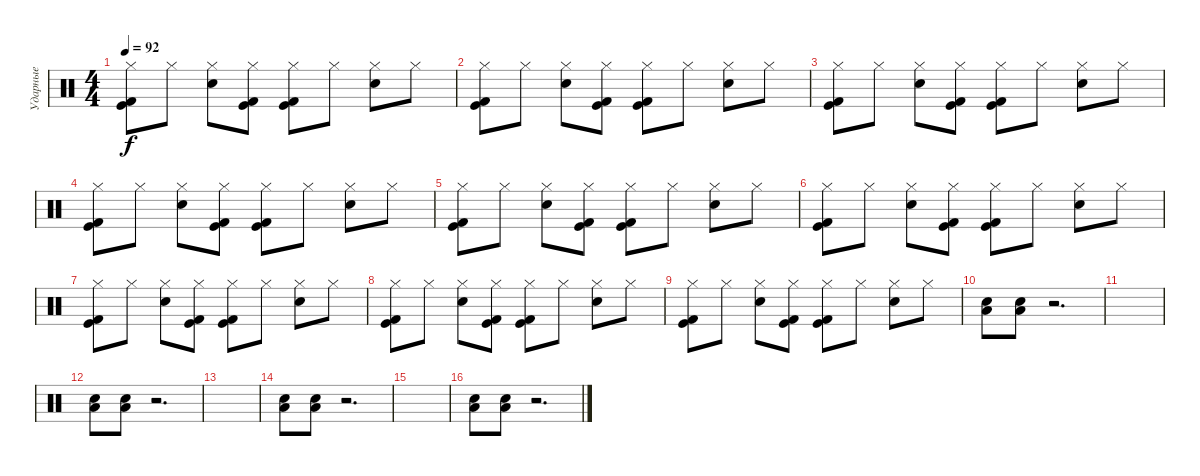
\track ("Ударные" "Ударные") {instrument percussion}
\staff {score}
\articulation defaults
\ts (4 4)
\tempo 92
\clef neutral
\ks c
("Hi-Hat (closed)" "Kick (hit)" "Kick (hit) 2").8{dy f} "Hi-Hat (closed)".8 ("Hi-Hat (closed)" "Electric Snare (hit)").8 ("Hi-Hat (closed)" "Kick (hit)" "Kick (hit) 2").8 ("Hi-Hat (closed)" "Kick (hit)" "Kick (hit) 2").8 "Hi-Hat (closed)".8 ("Hi-Hat (closed)" "Electric Snare (hit)").8 "Hi-Hat (closed)".8 |
("Hi-Hat (closed)" "Kick (hit)" "Kick (hit) 2").8 "Hi-Hat (closed)".8 ("Hi-Hat (closed)" "Electric Snare (hit)").8 ("Hi-Hat (closed)" "Kick (hit)" "Kick (hit) 2").8 ("Hi-Hat (closed)" "Kick (hit)" "Kick (hit) 2").8 "Hi-Hat (closed)".8 ("Hi-Hat (closed)" "Electric Snare (hit)").8 "Hi-Hat (closed)".8 |
("Hi-Hat (closed)" "Kick (hit)" "Kick (hit) 2").8 "Hi-Hat (closed)".8 ("Hi-Hat (closed)" "Electric Snare (hit)").8 ("Hi-Hat (closed)" "Kick (hit)" "Kick (hit) 2").8 ("Hi-Hat (closed)" "Kick (hit)" "Kick (hit) 2").8 "Hi-Hat (closed)".8 ("Hi-Hat (closed)" "Electric Snare (hit)").8 "Hi-Hat (closed)".8 |
("Hi-Hat (closed)" "Kick (hit)" "Kick (hit) 2").8 "Hi-Hat (closed)".8 ("Hi-Hat (closed)" "Electric Snare (hit)").8 ("Hi-Hat (closed)" "Kick (hit)" "Kick (hit) 2").8 ("Hi-Hat (closed)" "Kick (hit)" "Kick (hit) 2").8 "Hi-Hat (closed)".8 ("Hi-Hat (closed)" "Electric Snare (hit)").8 "Hi-Hat (closed)".8 |
("Hi-Hat (closed)" "Kick (hit)" "Kick (hit) 2").8 "Hi-Hat (closed)".8 ("Hi-Hat (closed)" "Electric Snare (hit)").8 ("Hi-Hat (closed)" "Kick (hit)" "Kick (hit) 2").8 ("Hi-Hat (closed)" "Kick (hit)" "Kick (hit) 2").8 "Hi-Hat (closed)".8 ("Hi-Hat (closed)" "Electric Snare (hit)").8 "Hi-Hat (closed)".8 |
("Hi-Hat (closed)" "Kick (hit)" "Kick (hit) 2").8 "Hi-Hat (closed)".8 ("Hi-Hat (closed)" "Electric Snare (hit)").8 ("Hi-Hat (closed)" "Kick (hit)" "Kick (hit) 2").8 ("Hi-Hat (closed)" "Kick (hit)" "Kick (hit) 2").8 "Hi-Hat (closed)".8 ("Hi-Hat (closed)" "Electric Snare (hit)").8 "Hi-Hat (closed)".8 |
("Hi-Hat (closed)" "Kick (hit)" "Kick (hit) 2").8 "Hi-Hat (closed)".8 ("Hi-Hat (closed)" "Electric Snare (hit)").8 ("Hi-Hat (closed)" "Kick (hit)" "Kick (hit) 2").8 ("Hi-Hat (closed)" "Kick (hit)" "Kick (hit) 2").8 "Hi-Hat (closed)".8 ("Hi-Hat (closed)" "Electric Snare (hit)").8 "Hi-Hat (closed)".8 |
("Hi-Hat (closed)" "Kick (hit)" "Kick (hit) 2").8 "Hi-Hat (closed)".8 ("Hi-Hat (closed)" "Electric Snare (hit)").8 ("Hi-Hat (closed)" "Kick (hit)" "Kick (hit) 2").8 ("Hi-Hat (closed)" "Kick (hit)" "Kick (hit) 2").8 "Hi-Hat (closed)".8 ("Hi-Hat (closed)" "Electric Snare (hit)").8 "Hi-Hat (closed)".8 |
("Hi-Hat (closed)" "Kick (hit)" "Kick (hit) 2").8 "Hi-Hat (closed)".8 ("Hi-Hat (closed)" "Electric Snare (hit)").8 ("Hi-Hat (closed)" "Kick (hit)" "Kick (hit) 2").8 ("Hi-Hat (closed)" "Kick (hit)" "Kick (hit) 2").8 "Hi-Hat (closed)".8 ("Hi-Hat (closed)" "Electric Snare (hit)").8 "Hi-Hat (closed)".8 |
("Electric Snare (hit)" "Low Floor Tom (hit)").8 ("Electric Snare (hit)" "Low Floor Tom (hit)").8 r.2{d} |
|
("Electric Snare (hit)" "Low Floor Tom (hit)").8 ("Electric Snare (hit)" "Low Floor Tom (hit)").8 r.2{d} |
|
("Electric Snare (hit)" "Low Floor Tom (hit)").8 ("Electric Snare (hit)" "Low Floor Tom (hit)").8 r.2{d} |
|
("Electric Snare (hit)" "Low Floor Tom (hit)").8 ("Electric Snare (hit)" "Low Floor Tom (hit)").8 r.2{d}
